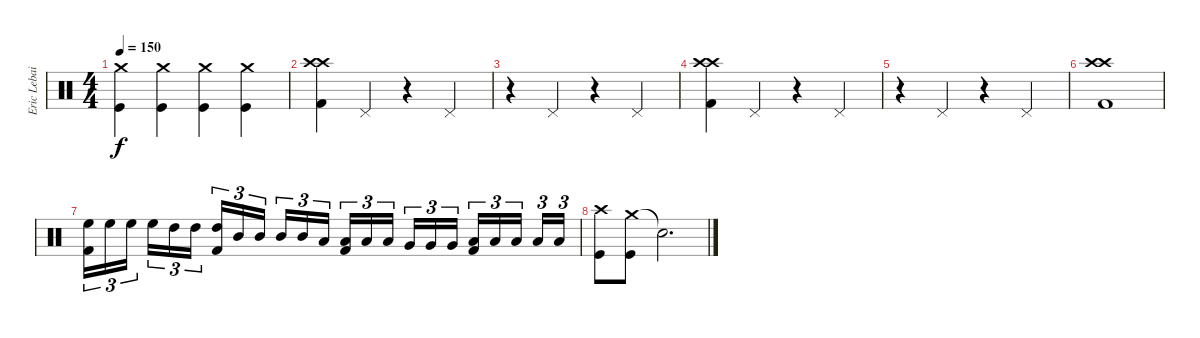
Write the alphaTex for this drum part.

\track ("Eric Lebailly - Drums" "Eric Lebai") {instrument percussion}
\staff {score}
\articulation defaults
\ts (4 4)
\tempo 150
\clef neutral
\ks c
("Crash medium (hit)" "Kick (hit)").4{dy f} ("Crash medium (hit)" "Kick (hit)").4 ("Crash medium (hit)" "Kick (hit)").4 ("Crash medium (hit)" "Kick (hit)").4 |
("Crash high (hit)" "Crash high (hit)" "Kick (hit) 2").4 "Pedal Hi-Hat (hit)".4 r.4 "Pedal Hi-Hat (hit)".4 |
r.4 "Pedal Hi-Hat (hit)".4 r.4 "Pedal Hi-Hat (hit)".4 |
("Crash high (hit)" "Crash high (hit)" "Kick (hit) 2").4 "Pedal Hi-Hat (hit)".4 r.4 "Pedal Hi-Hat (hit)".4 |
r.4 "Pedal Hi-Hat (hit)".4 r.4 "Pedal Hi-Hat (hit)".4 |
("Crash high (hit)" "Crash high (hit)" "Kick (hit) 2").1 |
("High Floor Tom (hit)" "Kick (hit) 2").16{tu (3 2)} "High Floor Tom (hit)".16{tu (3 2)} "High Floor Tom (hit)".16{tu (3 2) beam splitsecondary} "High Floor Tom (hit)".16{tu (3 2)} "High Tom (hit)".16{tu (3 2)} "High Tom (hit)".16{tu (3 2)} ("High Tom (hit)" "Kick (hit) 2").16{tu (3 2)} "Mid Tom (hit)".16{tu (3 2)} "Mid Tom (hit)".16{tu (3 2) beam splitsecondary} "Mid Tom (hit)".16{tu (3 2)} "Mid Tom (hit)".16{tu (3 2)} "Low Tom (hit)".16{tu (3 2)} ("Low Tom (hit)" "Kick (hit) 2").16{tu (3 2)} "Low Tom (hit)".16{tu (3 2)} "Low Tom (hit)".16{tu (3 2) beam splitsecondary} "Very Low Tom (hit)".16{tu (3 2)} "Very Low Tom (hit)".16{tu (3 2)} "Very Low Tom (hit)".16{tu (3 2)} ("Low Floor Tom (hit)" "Kick (hit) 2").16{tu (3 2)} "Low Floor Tom (hit)".16{tu (3 2)} "Low Floor Tom (hit)".16{tu (3 2) beam splitsecondary} "Low Floor Tom (hit)".16{tu (3 2)} "Low Floor Tom (hit)".16{tu (3 2)} |
("Crash high (hit)" "Kick (hit)").8 ("Crash medium (hit)" "Kick (hit)").8 "Snare (hit)"{t}.2{d}
